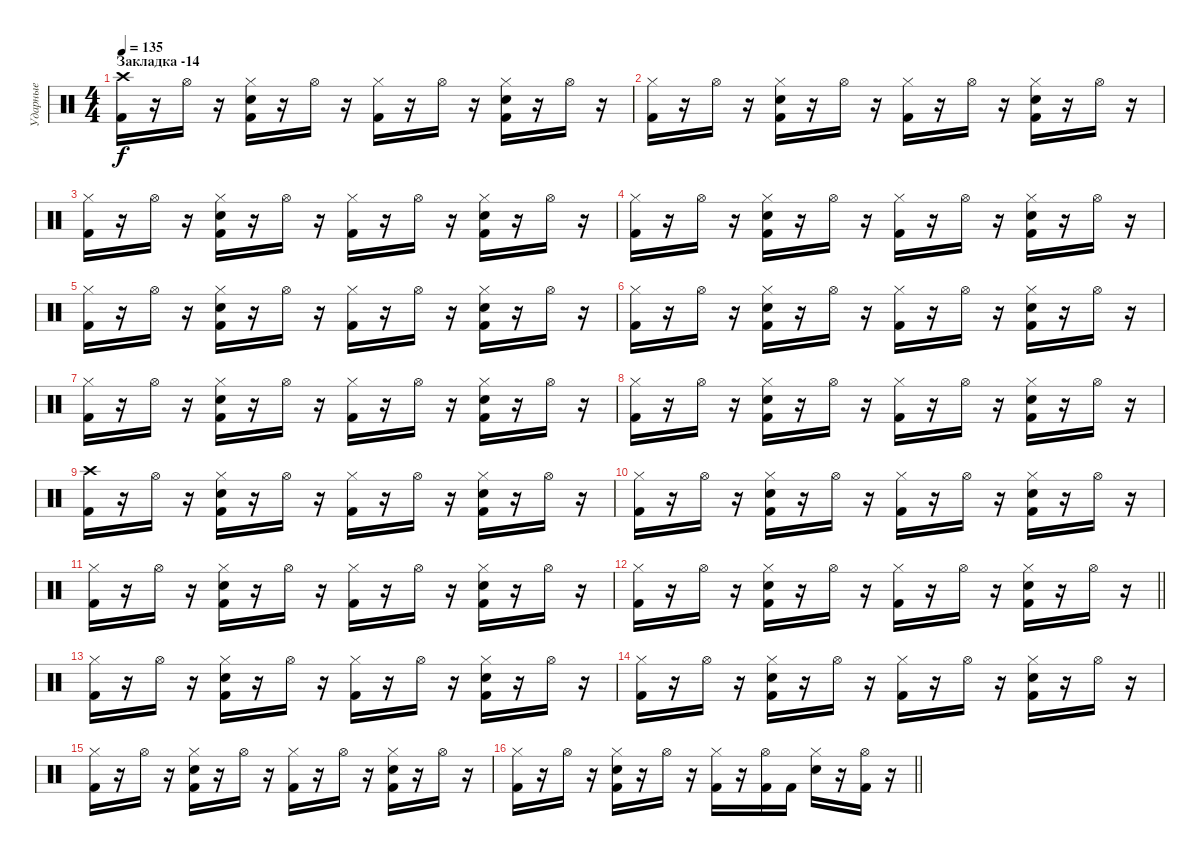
\track ("Ударные" "Ударные") {instrument percussion}
\staff {score}
\articulation defaults
\ts (4 4)
\section ("" "Закладка -14")
\tempo 135
\clef neutral
\ks c
("Crash high (hit)" "Kick (hit) 2").16{dy f} r.16 "Hi-Hat (open)".16 r.16 ("Hi-Hat (closed)" "Electric Snare (hit)" "Kick (hit) 2").16 r.16 "Hi-Hat (open)".16 r.16 ("Hi-Hat (closed)" "Kick (hit) 2").16 r.16 "Hi-Hat (open)".16 r.16 ("Hi-Hat (closed)" "Electric Snare (hit)" "Kick (hit) 2").16 r.16 "Hi-Hat (open)".16 r.16 |
("Hi-Hat (closed)" "Kick (hit) 2").16 r.16 "Hi-Hat (open)".16 r.16 ("Hi-Hat (closed)" "Electric Snare (hit)" "Kick (hit) 2").16 r.16 "Hi-Hat (open)".16 r.16 ("Hi-Hat (closed)" "Kick (hit) 2").16 r.16 "Hi-Hat (open)".16 r.16 ("Hi-Hat (closed)" "Electric Snare (hit)" "Kick (hit) 2").16 r.16 "Hi-Hat (open)".16 r.16 |
("Hi-Hat (closed)" "Kick (hit) 2").16 r.16 "Hi-Hat (open)".16 r.16 ("Hi-Hat (closed)" "Electric Snare (hit)" "Kick (hit) 2").16 r.16 "Hi-Hat (open)".16 r.16 ("Hi-Hat (closed)" "Kick (hit) 2").16 r.16 "Hi-Hat (open)".16 r.16 ("Hi-Hat (closed)" "Electric Snare (hit)" "Kick (hit) 2").16 r.16 "Hi-Hat (open)".16 r.16 |
("Hi-Hat (closed)" "Kick (hit) 2").16 r.16 "Hi-Hat (open)".16 r.16 ("Hi-Hat (closed)" "Electric Snare (hit)" "Kick (hit) 2").16 r.16 "Hi-Hat (open)".16 r.16 ("Hi-Hat (closed)" "Kick (hit) 2").16 r.16 "Hi-Hat (open)".16 r.16 ("Hi-Hat (closed)" "Electric Snare (hit)" "Kick (hit) 2").16 r.16 "Hi-Hat (open)".16 r.16 |
("Hi-Hat (closed)" "Kick (hit) 2").16 r.16 "Hi-Hat (open)".16 r.16 ("Hi-Hat (closed)" "Electric Snare (hit)" "Kick (hit) 2").16 r.16 "Hi-Hat (open)".16 r.16 ("Hi-Hat (closed)" "Kick (hit) 2").16 r.16 "Hi-Hat (open)".16 r.16 ("Hi-Hat (closed)" "Electric Snare (hit)" "Kick (hit) 2").16 r.16 "Hi-Hat (open)".16 r.16 |
("Hi-Hat (closed)" "Kick (hit) 2").16 r.16 "Hi-Hat (open)".16 r.16 ("Hi-Hat (closed)" "Electric Snare (hit)" "Kick (hit) 2").16 r.16 "Hi-Hat (open)".16 r.16 ("Hi-Hat (closed)" "Kick (hit) 2").16 r.16 "Hi-Hat (open)".16 r.16 ("Hi-Hat (closed)" "Electric Snare (hit)" "Kick (hit) 2").16 r.16 "Hi-Hat (open)".16 r.16 |
("Hi-Hat (closed)" "Kick (hit) 2").16 r.16 "Hi-Hat (open)".16 r.16 ("Hi-Hat (closed)" "Electric Snare (hit)" "Kick (hit) 2").16 r.16 "Hi-Hat (open)".16 r.16 ("Hi-Hat (closed)" "Kick (hit) 2").16 r.16 "Hi-Hat (open)".16 r.16 ("Hi-Hat (closed)" "Electric Snare (hit)" "Kick (hit) 2").16 r.16 "Hi-Hat (open)".16 r.16 |
("Hi-Hat (closed)" "Kick (hit) 2").16 r.16 "Hi-Hat (open)".16 r.16 ("Hi-Hat (closed)" "Electric Snare (hit)" "Kick (hit) 2").16 r.16 "Hi-Hat (open)".16 r.16 ("Hi-Hat (closed)" "Kick (hit) 2").16 r.16 "Hi-Hat (open)".16 r.16 ("Hi-Hat (closed)" "Electric Snare (hit)" "Kick (hit) 2").16 r.16 "Hi-Hat (open)".16 r.16 |
("Crash high (hit)" "Kick (hit) 2").16 r.16 "Hi-Hat (open)".16 r.16 ("Hi-Hat (closed)" "Electric Snare (hit)" "Kick (hit) 2").16 r.16 "Hi-Hat (open)".16 r.16 ("Hi-Hat (closed)" "Kick (hit) 2").16 r.16 "Hi-Hat (open)".16 r.16 ("Hi-Hat (closed)" "Electric Snare (hit)" "Kick (hit) 2").16 r.16 "Hi-Hat (open)".16 r.16 |
("Hi-Hat (closed)" "Kick (hit) 2").16 r.16 "Hi-Hat (open)".16 r.16 ("Hi-Hat (closed)" "Electric Snare (hit)" "Kick (hit) 2").16 r.16 "Hi-Hat (open)".16 r.16 ("Hi-Hat (closed)" "Kick (hit) 2").16 r.16 "Hi-Hat (open)".16 r.16 ("Hi-Hat (closed)" "Electric Snare (hit)" "Kick (hit) 2").16 r.16 "Hi-Hat (open)".16 r.16 |
("Hi-Hat (closed)" "Kick (hit) 2").16 r.16 "Hi-Hat (open)".16 r.16 ("Hi-Hat (closed)" "Electric Snare (hit)" "Kick (hit) 2").16 r.16 "Hi-Hat (open)".16 r.16 ("Hi-Hat (closed)" "Kick (hit) 2").16 r.16 "Hi-Hat (open)".16 r.16 ("Hi-Hat (closed)" "Electric Snare (hit)" "Kick (hit) 2").16 r.16 "Hi-Hat (open)".16 r.16 |
\barLineRight lightlight
("Hi-Hat (closed)" "Kick (hit) 2").16 r.16 "Hi-Hat (open)".16 r.16 ("Hi-Hat (closed)" "Electric Snare (hit)" "Kick (hit) 2").16 r.16 "Hi-Hat (open)".16 r.16 ("Hi-Hat (closed)" "Kick (hit) 2").16 r.16 "Hi-Hat (open)".16 r.16 ("Hi-Hat (closed)" "Electric Snare (hit)" "Kick (hit) 2").16 r.16 "Hi-Hat (open)".16 r.16 |
("Hi-Hat (closed)" "Kick (hit) 2").16 r.16 "Hi-Hat (open)".16 r.16 ("Hi-Hat (closed)" "Electric Snare (hit)" "Kick (hit) 2").16 r.16 "Hi-Hat (open)".16 r.16 ("Hi-Hat (closed)" "Kick (hit) 2").16 r.16 "Hi-Hat (open)".16 r.16 ("Hi-Hat (closed)" "Electric Snare (hit)" "Kick (hit) 2").16 r.16 "Hi-Hat (open)".16 r.16 |
("Hi-Hat (closed)" "Kick (hit) 2").16 r.16 "Hi-Hat (open)".16 r.16 ("Hi-Hat (closed)" "Electric Snare (hit)" "Kick (hit) 2").16 r.16 "Hi-Hat (open)".16 r.16 ("Hi-Hat (closed)" "Kick (hit) 2").16 r.16 "Hi-Hat (open)".16 r.16 ("Hi-Hat (closed)" "Electric Snare (hit)" "Kick (hit) 2").16 r.16 "Hi-Hat (open)".16 r.16 |
("Hi-Hat (closed)" "Kick (hit) 2").16 r.16 "Hi-Hat (open)".16 r.16 ("Hi-Hat (closed)" "Electric Snare (hit)" "Kick (hit) 2").16 r.16 "Hi-Hat (open)".16 r.16 ("Hi-Hat (closed)" "Kick (hit) 2").16 r.16 "Hi-Hat (open)".16 r.16 ("Hi-Hat (closed)" "Electric Snare (hit)" "Kick (hit) 2").16 r.16 "Hi-Hat (open)".16 r.16 |
\barLineRight lightlight
("Hi-Hat (closed)" "Kick (hit) 2").16 r.16 "Hi-Hat (open)".16 r.16 ("Hi-Hat (closed)" "Electric Snare (hit)" "Kick (hit) 2").16 r.16 "Hi-Hat (open)".16 r.16 ("Hi-Hat (closed)" "Kick (hit) 2").16 r.16 ("Hi-Hat (open)" "Kick (hit) 2").16 "Kick (hit) 2".16 ("Hi-Hat (closed)" "Electric Snare (hit)").16 r.16 ("Hi-Hat (open)" "Kick (hit) 2").16 r.16
